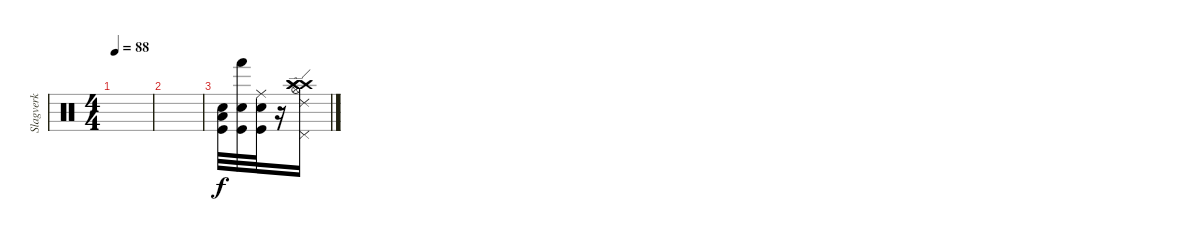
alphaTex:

\track ("Slagverk" "Slagverk") {instrument percussion}
\staff {score}
\articulation defaults
\ts (4 4)
\tempo 88
\clef neutral
\ks c
|
|
("Electric Snare (hit)" "Low Floor Tom (hit)" "Kick (hit)").32 ("Electric Snare (hit)" "Hand (hit)" "Kick (hit)").32 ("Electric Snare (hit)" "Ride (middle)" "Kick (hit)").32 r.16 ("Crash high (hit)" "Crash high (hit)" "Ride (edge) 2" "Hi-Hat (open)" "Pedal Hi-Hat (hit)" "Crash high (hit)").16
